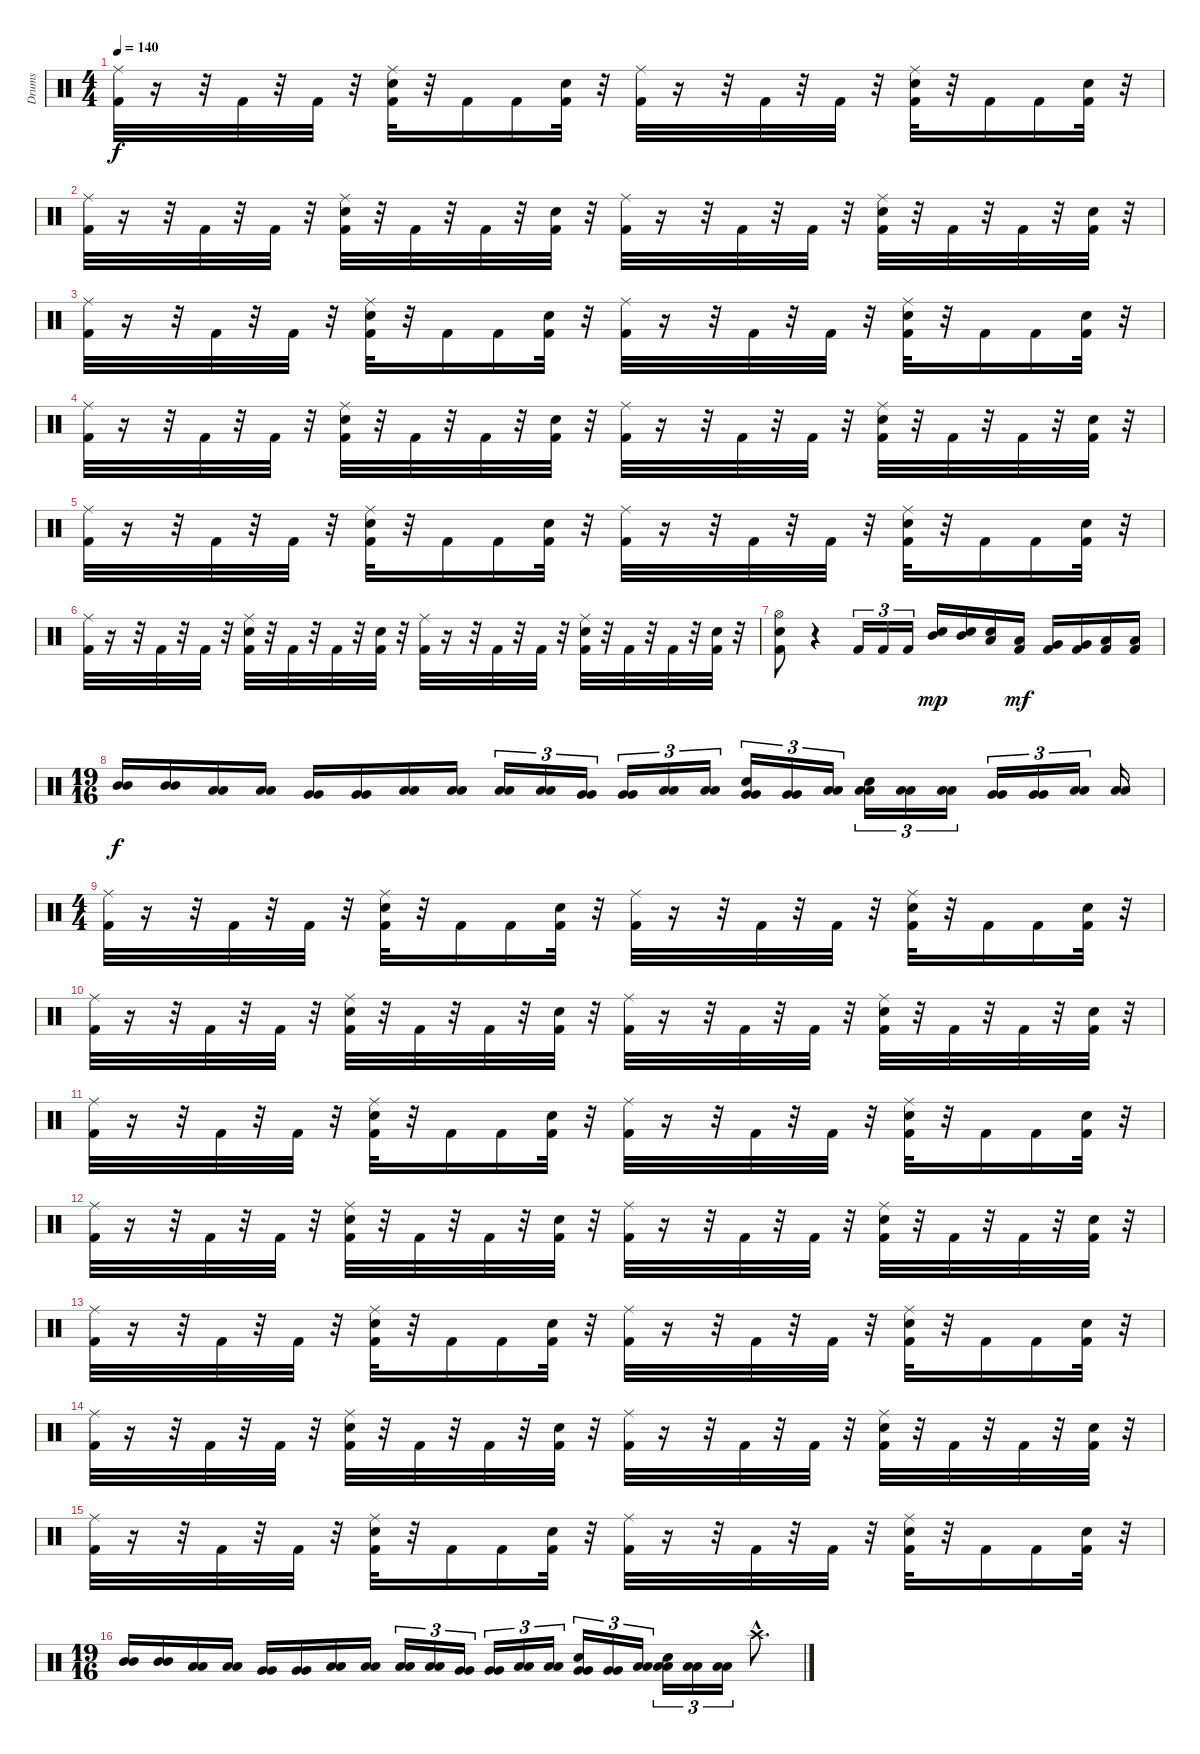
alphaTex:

\track ("Drums" "Drums") {instrument percussion}
\staff {score}
\articulation defaults
\ts (4 4)
\tempo 140
\clef neutral
\ks c
("Ride (middle)" "Kick (hit) 2").32{dy f} r.16 r.32 "Kick (hit) 2".32 r.32 "Kick (hit) 2".32 r.32 ("Ride (middle)" "Snare (hit) 2" "Kick (hit) 2").32 r.32 "Kick (hit) 2".16 "Kick (hit) 2".16 ("Snare (hit) 2" "Kick (hit) 2").32 r.32 ("Ride (middle)" "Kick (hit) 2").32 r.16 r.32 "Kick (hit) 2".32 r.32 "Kick (hit) 2".32 r.32 ("Ride (middle)" "Snare (hit) 2" "Kick (hit) 2").32 r.32 "Kick (hit) 2".16 "Kick (hit) 2".16 ("Snare (hit) 2" "Kick (hit) 2").32 r.32 |
("Ride (middle)" "Kick (hit) 2").32 r.16 r.32 "Kick (hit) 2".32 r.32 "Kick (hit) 2".32 r.32 ("Ride (middle)" "Snare (hit) 2" "Kick (hit) 2").32 r.32 "Kick (hit) 2".32 r.32 "Kick (hit) 2".32 r.32 ("Electric Snare (hit)" "Kick (hit) 2").32 r.32 ("Ride (middle)" "Kick (hit) 2").32 r.16 r.32 "Kick (hit) 2".32 r.32 "Kick (hit) 2".32 r.32 ("Ride (middle)" "Snare (hit) 2" "Kick (hit) 2").32 r.32 "Kick (hit) 2".32 r.32 "Kick (hit) 2".32 r.32 ("Electric Snare (hit)" "Kick (hit) 2").32 r.32 |
("Ride (middle)" "Kick (hit) 2").32 r.16 r.32 "Kick (hit) 2".32 r.32 "Kick (hit) 2".32 r.32 ("Ride (middle)" "Snare (hit) 2" "Kick (hit) 2").32 r.32 "Kick (hit) 2".16 "Kick (hit) 2".16 ("Snare (hit) 2" "Kick (hit) 2").32 r.32 ("Ride (middle)" "Kick (hit) 2").32 r.16 r.32 "Kick (hit) 2".32 r.32 "Kick (hit) 2".32 r.32 ("Ride (middle)" "Snare (hit) 2" "Kick (hit) 2").32 r.32 "Kick (hit) 2".16 "Kick (hit) 2".16 ("Snare (hit) 2" "Kick (hit) 2").32 r.32 |
("Ride (middle)" "Kick (hit) 2").32 r.16 r.32 "Kick (hit) 2".32 r.32 "Kick (hit) 2".32 r.32 ("Ride (middle)" "Snare (hit) 2" "Kick (hit) 2").32 r.32 "Kick (hit) 2".32 r.32 "Kick (hit) 2".32 r.32 ("Electric Snare (hit)" "Kick (hit) 2").32 r.32 ("Ride (middle)" "Kick (hit) 2").32 r.16 r.32 "Kick (hit) 2".32 r.32 "Kick (hit) 2".32 r.32 ("Ride (middle)" "Snare (hit) 2" "Kick (hit) 2").32 r.32 "Kick (hit) 2".32 r.32 "Kick (hit) 2".32 r.32 ("Electric Snare (hit)" "Kick (hit) 2").32 r.32 |
("Ride (middle)" "Kick (hit) 2").32 r.16 r.32 "Kick (hit) 2".32 r.32 "Kick (hit) 2".32 r.32 ("Ride (middle)" "Snare (hit) 2" "Kick (hit) 2").32 r.32 "Kick (hit) 2".16 "Kick (hit) 2".16 ("Snare (hit) 2" "Kick (hit) 2").32 r.32 ("Ride (middle)" "Kick (hit) 2").32 r.16 r.32 "Kick (hit) 2".32 r.32 "Kick (hit) 2".32 r.32 ("Ride (middle)" "Snare (hit) 2" "Kick (hit) 2").32 r.32 "Kick (hit) 2".16 "Kick (hit) 2".16 ("Snare (hit) 2" "Kick (hit) 2").32 r.32 |
("Ride (middle)" "Kick (hit) 2").32 r.16 r.32 "Kick (hit) 2".32 r.32 "Kick (hit) 2".32 r.32 ("Ride (middle)" "Snare (hit) 2" "Kick (hit) 2").32 r.32 "Kick (hit) 2".32 r.32 "Kick (hit) 2".32 r.32 ("Electric Snare (hit)" "Kick (hit) 2").32 r.32 ("Ride (middle)" "Kick (hit) 2").32 r.16 r.32 "Kick (hit) 2".32 r.32 "Kick (hit) 2".32 r.32 ("Ride (middle)" "Snare (hit) 2" "Kick (hit) 2").32 r.32 "Kick (hit) 2".32 r.32 "Kick (hit) 2".32 r.32 ("Electric Snare (hit)" "Kick (hit) 2").32 r.32 |
("Hi-Hat (open)" "Kick (hit) 2" "Snare (hit) 2").8 r.4 "Kick (hit) 2".16{tu (3 2)} "Kick (hit) 2".16{tu (3 2)} "Kick (hit) 2".16{tu (3 2)} ("Mid Tom (hit)" "Snare (hit) 2").16{dy mp} ("Mid Tom (hit)" "Snare (hit) 2").16 ("Low Tom (hit)" "Snare (hit) 2").16 ("Low Tom (hit)" "Kick (hit) 2").16{dy mf} ("Very Low Tom (hit)" "Kick (hit) 2").16 ("Very Low Tom (hit)" "Kick (hit) 2").16 ("Low Floor Tom (hit)" "Kick (hit) 2").16 ("Low Floor Tom (hit)" "Kick (hit) 2").16 |
\ts (19 16)
("Mid Tom (hit)" "Mid Tom (hit)").16{dy f} ("Mid Tom (hit)" "Mid Tom (hit)").16 ("Low Tom (hit)" "Low Tom (hit)").16 ("Low Tom (hit)" "Low Tom (hit)").16 ("Very Low Tom (hit)" "Very Low Tom (hit)").16 ("Very Low Tom (hit)" "Very Low Tom (hit)").16 ("Low Floor Tom (hit)" "Low Floor Tom (hit)").16 ("Low Floor Tom (hit)" "Low Floor Tom (hit)").16 ("Low Tom (hit)" "Low Tom (hit)").16{tu (3 2)} ("Low Tom (hit)" "Low Tom (hit)").16{tu (3 2)} ("Very Low Tom (hit)" "Very Low Tom (hit)").16{tu (3 2)} ("Very Low Tom (hit)" "Very Low Tom (hit)").16{tu (3 2)} ("Low Floor Tom (hit)" "Low Floor Tom (hit)").16{tu (3 2)} ("Low Floor Tom (hit)" "Low Floor Tom (hit)").16{tu (3 2)} ("Snare (hit) 2" "Very Low Tom (hit)" "Very Low Tom (hit)").16{tu (3 2)} ("Very Low Tom (hit)" "Very Low Tom (hit)").16{tu (3 2)} ("Low Floor Tom (hit)" "Low Floor Tom (hit)").16{tu (3 2)} ("Snare (hit) 2" "Low Floor Tom (hit)" "Low Floor Tom (hit)").16{tu (3 2)} ("Low Floor Tom (hit)" "Low Floor Tom (hit)").16{tu (3 2)} ("Low Floor Tom (hit)" "Low Floor Tom (hit)").16{tu (3 2)} ("Very Low Tom (hit)" "Very Low Tom (hit)").16{tu (3 2)} ("Very Low Tom (hit)" "Very Low Tom (hit)").16{tu (3 2)} ("Low Floor Tom (hit)" "Low Floor Tom (hit)").16{tu (3 2)} ("Low Floor Tom (hit)" "Low Floor Tom (hit)").16 |
\ts (4 4)
("Ride (middle)" "Kick (hit) 2").32 r.16 r.32 "Kick (hit) 2".32 r.32 "Kick (hit) 2".32 r.32 ("Ride (middle)" "Snare (hit) 2" "Kick (hit) 2").32 r.32 "Kick (hit) 2".16 "Kick (hit) 2".16 ("Snare (hit) 2" "Kick (hit) 2").32 r.32 ("Ride (middle)" "Kick (hit) 2").32 r.16 r.32 "Kick (hit) 2".32 r.32 "Kick (hit) 2".32 r.32 ("Ride (middle)" "Snare (hit) 2" "Kick (hit) 2").32 r.32 "Kick (hit) 2".16 "Kick (hit) 2".16 ("Snare (hit) 2" "Kick (hit) 2").32 r.32 |
("Ride (middle)" "Kick (hit) 2").32 r.16 r.32 "Kick (hit) 2".32 r.32 "Kick (hit) 2".32 r.32 ("Ride (middle)" "Snare (hit) 2" "Kick (hit) 2").32 r.32 "Kick (hit) 2".32 r.32 "Kick (hit) 2".32 r.32 ("Electric Snare (hit)" "Kick (hit) 2").32 r.32 ("Ride (middle)" "Kick (hit) 2").32 r.16 r.32 "Kick (hit) 2".32 r.32 "Kick (hit) 2".32 r.32 ("Ride (middle)" "Snare (hit) 2" "Kick (hit) 2").32 r.32 "Kick (hit) 2".32 r.32 "Kick (hit) 2".32 r.32 ("Electric Snare (hit)" "Kick (hit) 2").32 r.32 |
("Ride (middle)" "Kick (hit) 2").32 r.16 r.32 "Kick (hit) 2".32 r.32 "Kick (hit) 2".32 r.32 ("Ride (middle)" "Snare (hit) 2" "Kick (hit) 2").32 r.32 "Kick (hit) 2".16 "Kick (hit) 2".16 ("Snare (hit) 2" "Kick (hit) 2").32 r.32 ("Ride (middle)" "Kick (hit) 2").32 r.16 r.32 "Kick (hit) 2".32 r.32 "Kick (hit) 2".32 r.32 ("Ride (middle)" "Snare (hit) 2" "Kick (hit) 2").32 r.32 "Kick (hit) 2".16 "Kick (hit) 2".16 ("Snare (hit) 2" "Kick (hit) 2").32 r.32 |
("Ride (middle)" "Kick (hit) 2").32 r.16 r.32 "Kick (hit) 2".32 r.32 "Kick (hit) 2".32 r.32 ("Ride (middle)" "Snare (hit) 2" "Kick (hit) 2").32 r.32 "Kick (hit) 2".32 r.32 "Kick (hit) 2".32 r.32 ("Electric Snare (hit)" "Kick (hit) 2").32 r.32 ("Ride (middle)" "Kick (hit) 2").32 r.16 r.32 "Kick (hit) 2".32 r.32 "Kick (hit) 2".32 r.32 ("Ride (middle)" "Snare (hit) 2" "Kick (hit) 2").32 r.32 "Kick (hit) 2".32 r.32 "Kick (hit) 2".32 r.32 ("Electric Snare (hit)" "Kick (hit) 2").32 r.32 |
("Ride (middle)" "Kick (hit) 2").32 r.16 r.32 "Kick (hit) 2".32 r.32 "Kick (hit) 2".32 r.32 ("Ride (middle)" "Snare (hit) 2" "Kick (hit) 2").32 r.32 "Kick (hit) 2".16 "Kick (hit) 2".16 ("Snare (hit) 2" "Kick (hit) 2").32 r.32 ("Ride (middle)" "Kick (hit) 2").32 r.16 r.32 "Kick (hit) 2".32 r.32 "Kick (hit) 2".32 r.32 ("Ride (middle)" "Snare (hit) 2" "Kick (hit) 2").32 r.32 "Kick (hit) 2".16 "Kick (hit) 2".16 ("Snare (hit) 2" "Kick (hit) 2").32 r.32 |
("Ride (middle)" "Kick (hit) 2").32 r.16 r.32 "Kick (hit) 2".32 r.32 "Kick (hit) 2".32 r.32 ("Ride (middle)" "Snare (hit) 2" "Kick (hit) 2").32 r.32 "Kick (hit) 2".32 r.32 "Kick (hit) 2".32 r.32 ("Electric Snare (hit)" "Kick (hit) 2").32 r.32 ("Ride (middle)" "Kick (hit) 2").32 r.16 r.32 "Kick (hit) 2".32 r.32 "Kick (hit) 2".32 r.32 ("Ride (middle)" "Snare (hit) 2" "Kick (hit) 2").32 r.32 "Kick (hit) 2".32 r.32 "Kick (hit) 2".32 r.32 ("Electric Snare (hit)" "Kick (hit) 2").32 r.32 |
("Ride (middle)" "Kick (hit) 2").32 r.16 r.32 "Kick (hit) 2".32 r.32 "Kick (hit) 2".32 r.32 ("Ride (middle)" "Snare (hit) 2" "Kick (hit) 2").32 r.32 "Kick (hit) 2".16 "Kick (hit) 2".16 ("Snare (hit) 2" "Kick (hit) 2").32 r.32 ("Ride (middle)" "Kick (hit) 2").32 r.16 r.32 "Kick (hit) 2".32 r.32 "Kick (hit) 2".32 r.32 ("Ride (middle)" "Snare (hit) 2" "Kick (hit) 2").32 r.32 "Kick (hit) 2".16 "Kick (hit) 2".16 ("Snare (hit) 2" "Kick (hit) 2").32 r.32 |
\ts (19 16)
("Mid Tom (hit)" "Mid Tom (hit)").16 ("Mid Tom (hit)" "Mid Tom (hit)").16 ("Low Tom (hit)" "Low Tom (hit)").16 ("Low Tom (hit)" "Low Tom (hit)").16 ("Very Low Tom (hit)" "Very Low Tom (hit)").16 ("Very Low Tom (hit)" "Very Low Tom (hit)").16 ("Low Floor Tom (hit)" "Low Floor Tom (hit)").16 ("Low Floor Tom (hit)" "Low Floor Tom (hit)").16 ("Low Tom (hit)" "Low Tom (hit)").16{tu (3 2)} ("Low Tom (hit)" "Low Tom (hit)").16{tu (3 2)} ("Very Low Tom (hit)" "Very Low Tom (hit)").16{tu (3 2)} ("Very Low Tom (hit)" "Very Low Tom (hit)").16{tu (3 2)} ("Low Floor Tom (hit)" "Low Floor Tom (hit)").16{tu (3 2)} ("Low Floor Tom (hit)" "Low Floor Tom (hit)").16{tu (3 2)} ("Snare (hit) 2" "Very Low Tom (hit)" "Very Low Tom (hit)").16{tu (3 2)} ("Very Low Tom (hit)" "Very Low Tom (hit)").16{tu (3 2)} ("Low Floor Tom (hit)" "Low Floor Tom (hit)").16{tu (3 2)} ("Snare (hit) 2" "Low Floor Tom (hit)" "Low Floor Tom (hit)").16{tu (3 2)} ("Low Floor Tom (hit)" "Low Floor Tom (hit)").16{tu (3 2)} ("Low Floor Tom (hit)" "Low Floor Tom (hit)").16{tu (3 2)} "Crash high (hit)"{hac}.8{d}
